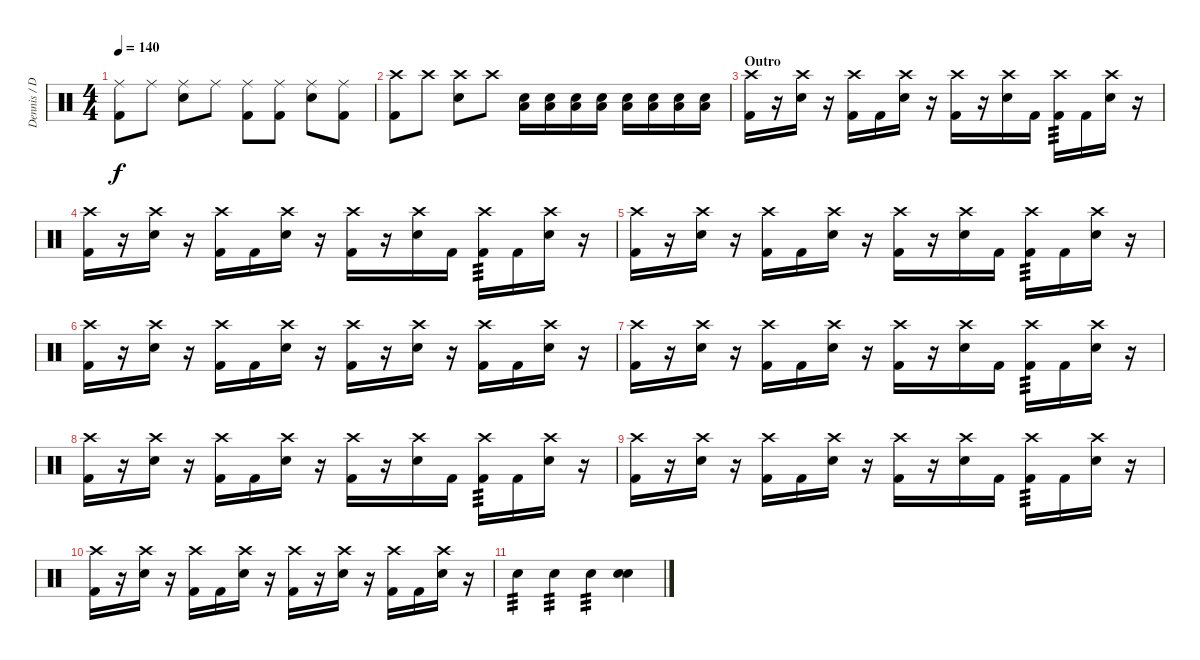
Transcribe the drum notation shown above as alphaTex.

\track ("Dennis / Drums" "Dennis / D") {instrument percussion}
\staff {score}
\articulation defaults
\ts (4 4)
\tempo 140
\clef neutral
\ks c
("Ride (middle)" "Kick (hit) 2").8{dy f} "Ride (middle)".8 ("Ride (middle)" "Electric Snare (hit)").8 "Ride (middle)".8 ("Ride (middle)" "Kick (hit) 2").8 ("Ride (middle)" "Kick (hit) 2").8 ("Ride (middle)" "Electric Snare (hit)").8 ("Ride (middle)" "Kick (hit) 2").8 |
("Crash high (hit)" "Kick (hit) 2").8 "Crash high (hit)".8 ("Crash high (hit)" "Electric Snare (hit)").8 "Crash high (hit)".8 ("Low Floor Tom (hit)" "Electric Snare (hit)").16 ("Low Floor Tom (hit)" "Electric Snare (hit)").16 ("Low Floor Tom (hit)" "Electric Snare (hit)").16 ("Low Floor Tom (hit)" "Electric Snare (hit)").16 ("Low Floor Tom (hit)" "Electric Snare (hit)").16 ("Low Floor Tom (hit)" "Electric Snare (hit)").16 ("Low Floor Tom (hit)" "Electric Snare (hit)").16 ("Low Floor Tom (hit)" "Electric Snare (hit)").16 |
\section ("" "Outro")
("Crash high (hit)" "Kick (hit) 2").16 r.16 ("Crash high (hit)" "Electric Snare (hit)").16 r.16 ("Crash high (hit)" "Kick (hit) 2").16 "Kick (hit) 2".16 ("Crash high (hit)" "Electric Snare (hit)").16 r.16 ("Crash high (hit)" "Kick (hit) 2").16 r.16 ("Crash high (hit)" "Electric Snare (hit)").16 "Kick (hit) 2".16 ("Crash high (hit)" "Kick (hit) 2").16{tp 3} "Kick (hit) 2".16 ("Crash high (hit)" "Electric Snare (hit)").16 r.16 |
("Crash high (hit)" "Kick (hit) 2").16 r.16 ("Crash high (hit)" "Electric Snare (hit)").16 r.16 ("Crash high (hit)" "Kick (hit) 2").16 "Kick (hit) 2".16 ("Crash high (hit)" "Electric Snare (hit)").16 r.16 ("Crash high (hit)" "Kick (hit) 2").16 r.16 ("Crash high (hit)" "Electric Snare (hit)").16 "Kick (hit) 2".16 ("Crash high (hit)" "Kick (hit) 2").16{tp 3} "Kick (hit) 2".16 ("Crash high (hit)" "Electric Snare (hit)").16 r.16 |
("Crash high (hit)" "Kick (hit) 2").16 r.16 ("Crash high (hit)" "Electric Snare (hit)").16 r.16 ("Crash high (hit)" "Kick (hit) 2").16 "Kick (hit) 2".16 ("Crash high (hit)" "Electric Snare (hit)").16 r.16 ("Crash high (hit)" "Kick (hit) 2").16 r.16 ("Crash high (hit)" "Electric Snare (hit)").16 "Kick (hit) 2".16 ("Crash high (hit)" "Kick (hit) 2").16{tp 3} "Kick (hit) 2".16 ("Crash high (hit)" "Electric Snare (hit)").16 r.16 |
("Crash high (hit)" "Kick (hit) 2").16 r.16 ("Crash high (hit)" "Electric Snare (hit)").16 r.16 ("Crash high (hit)" "Kick (hit) 2").16 "Kick (hit) 2".16 ("Crash high (hit)" "Electric Snare (hit)").16 r.16 ("Crash high (hit)" "Kick (hit) 2").16 r.16 ("Crash high (hit)" "Electric Snare (hit)").16 r.16 ("Crash high (hit)" "Kick (hit) 2").16 "Kick (hit) 2".16 ("Crash high (hit)" "Electric Snare (hit)").16 r.16 |
("Crash high (hit)" "Kick (hit) 2").16 r.16 ("Crash high (hit)" "Electric Snare (hit)").16 r.16 ("Crash high (hit)" "Kick (hit) 2").16 "Kick (hit) 2".16 ("Crash high (hit)" "Electric Snare (hit)").16 r.16 ("Crash high (hit)" "Kick (hit) 2").16 r.16 ("Crash high (hit)" "Electric Snare (hit)").16 "Kick (hit) 2".16 ("Crash high (hit)" "Kick (hit) 2").16{tp 3} "Kick (hit) 2".16 ("Crash high (hit)" "Electric Snare (hit)").16 r.16 |
("Crash high (hit)" "Kick (hit) 2").16 r.16 ("Crash high (hit)" "Electric Snare (hit)").16 r.16 ("Crash high (hit)" "Kick (hit) 2").16 "Kick (hit) 2".16 ("Crash high (hit)" "Electric Snare (hit)").16 r.16 ("Crash high (hit)" "Kick (hit) 2").16 r.16 ("Crash high (hit)" "Electric Snare (hit)").16 "Kick (hit) 2".16 ("Crash high (hit)" "Kick (hit) 2").16{tp 3} "Kick (hit) 2".16 ("Crash high (hit)" "Electric Snare (hit)").16 r.16 |
("Crash high (hit)" "Kick (hit) 2").16 r.16 ("Crash high (hit)" "Electric Snare (hit)").16 r.16 ("Crash high (hit)" "Kick (hit) 2").16 "Kick (hit) 2".16 ("Crash high (hit)" "Electric Snare (hit)").16 r.16 ("Crash high (hit)" "Kick (hit) 2").16 r.16 ("Crash high (hit)" "Electric Snare (hit)").16 "Kick (hit) 2".16 ("Crash high (hit)" "Kick (hit) 2").16{tp 3} "Kick (hit) 2".16 ("Crash high (hit)" "Electric Snare (hit)").16 r.16 |
("Crash high (hit)" "Kick (hit) 2").16 r.16 ("Crash high (hit)" "Electric Snare (hit)").16 r.16 ("Crash high (hit)" "Kick (hit) 2").16 "Kick (hit) 2".16 ("Crash high (hit)" "Electric Snare (hit)").16 r.16 ("Crash high (hit)" "Kick (hit) 2").16 r.16 ("Crash high (hit)" "Electric Snare (hit)").16 r.16 ("Crash high (hit)" "Kick (hit) 2").16 "Kick (hit) 2".16 ("Crash high (hit)" "Electric Snare (hit)").16 r.16 |
"Electric Snare (hit)".4{tp 3} "Electric Snare (hit)".4{tp 3} "Electric Snare (hit)".4{tp 3} ("Electric Snare (hit)" "Electric Snare (hit)").4{bd 240}
